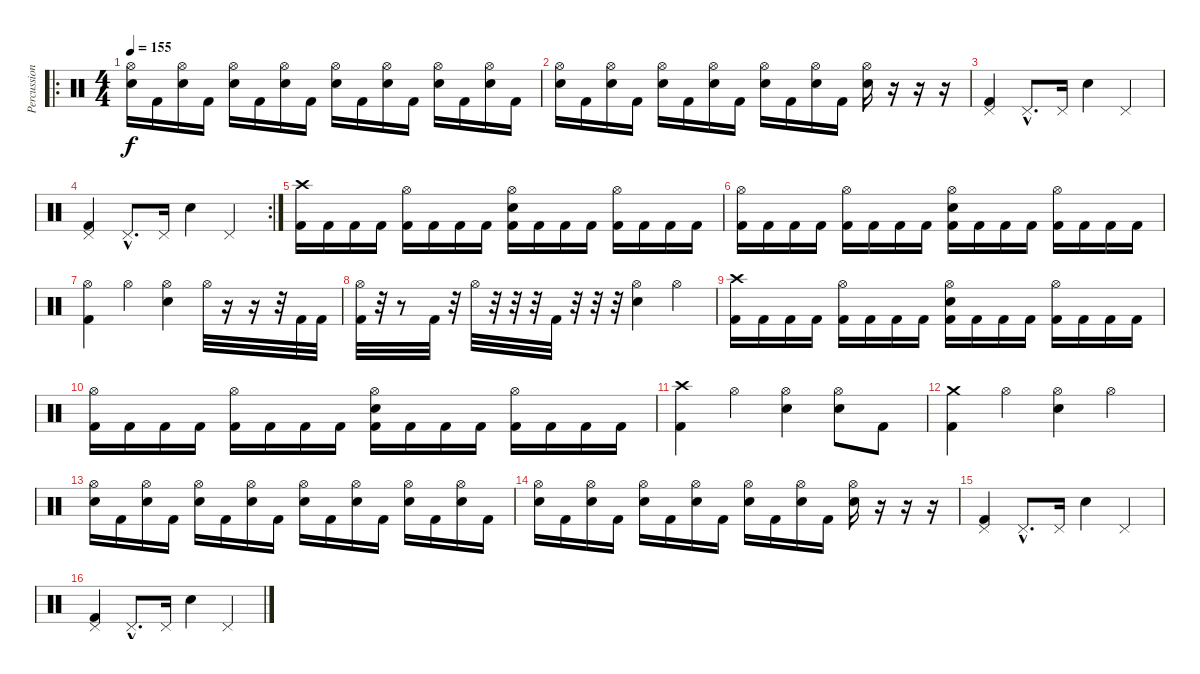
\track ("Percussions" "Percussion") {instrument percussion}
\staff {score}
\articulation defaults
\ro
\ts (4 4)
\tempo 155
\clef neutral
\ks c
("Hi-Hat (open)" "Electric Snare (hit)").16{dy f} "Kick (hit) 2".16 ("Hi-Hat (open)" "Electric Snare (hit)").16 "Kick (hit) 2".16 ("Hi-Hat (open)" "Electric Snare (hit)").16 "Kick (hit) 2".16 ("Hi-Hat (open)" "Electric Snare (hit)").16 "Kick (hit) 2".16 ("Hi-Hat (open)" "Electric Snare (hit)").16 "Kick (hit) 2".16 ("Hi-Hat (open)" "Electric Snare (hit)").16 "Kick (hit) 2".16 ("Hi-Hat (open)" "Electric Snare (hit)").16 "Kick (hit) 2".16 ("Hi-Hat (open)" "Electric Snare (hit)").16 "Kick (hit) 2".16 |
("Hi-Hat (open)" "Electric Snare (hit)").16 "Kick (hit) 2".16 ("Hi-Hat (open)" "Electric Snare (hit)").16 "Kick (hit) 2".16 ("Hi-Hat (open)" "Electric Snare (hit)").16 "Kick (hit) 2".16 ("Hi-Hat (open)" "Electric Snare (hit)").16 "Kick (hit) 2".16 ("Hi-Hat (open)" "Electric Snare (hit)").16 "Kick (hit) 2".16 ("Hi-Hat (open)" "Electric Snare (hit)").16 "Kick (hit) 2".16 ("Hi-Hat (open)" "Electric Snare (hit)").16 r.16 r.16 r.16 |
("Pedal Hi-Hat (hit)" "Kick (hit) 2").4 "Pedal Hi-Hat (hit)"{hac}.8{d} "Pedal Hi-Hat (hit)".16 "Electric Snare (hit)".4 "Pedal Hi-Hat (hit)".4 |
\rc 2
("Pedal Hi-Hat (hit)" "Kick (hit) 2").4 "Pedal Hi-Hat (hit)"{hac}.8{d} "Pedal Hi-Hat (hit)".16 "Electric Snare (hit)".4 "Pedal Hi-Hat (hit)".4 |
("Crash high (hit)" "Kick (hit) 2").16 "Kick (hit) 2".16 "Kick (hit) 2".16 "Kick (hit) 2".16 ("Hi-Hat (open)" "Kick (hit) 2").16 "Kick (hit) 2".16 "Kick (hit) 2".16 "Kick (hit) 2".16 ("Hi-Hat (open)" "Electric Snare (hit)" "Kick (hit) 2").16 "Kick (hit) 2".16 "Kick (hit) 2".16 "Kick (hit) 2".16 ("Hi-Hat (open)" "Kick (hit) 2").16 "Kick (hit) 2".16 "Kick (hit) 2".16 "Kick (hit) 2".16 |
("Hi-Hat (open)" "Kick (hit) 2").16 "Kick (hit) 2".16 "Kick (hit) 2".16 "Kick (hit) 2".16 ("Hi-Hat (open)" "Kick (hit) 2").16 "Kick (hit) 2".16 "Kick (hit) 2".16 "Kick (hit) 2".16 ("Hi-Hat (open)" "Electric Snare (hit)" "Kick (hit) 2").16 "Kick (hit) 2".16 "Kick (hit) 2".16 "Kick (hit) 2".16 ("Hi-Hat (open)" "Kick (hit) 2").16 "Kick (hit) 2".16 "Kick (hit) 2".16 "Kick (hit) 2".16 |
("Hi-Hat (open)" "Kick (hit) 2").4 "Hi-Hat (open)".4 ("Hi-Hat (open)" "Electric Snare (hit)").4 "Hi-Hat (open)".32 r.16 r.16 r.32 "Kick (hit) 2".32 "Kick (hit) 2".32 |
("Hi-Hat (open)" "Kick (hit) 2").32 r.32 r.8 "Kick (hit) 2".32 r.32 "Hi-Hat (open)".32 r.32 r.32 r.32 "Kick (hit) 2".32 r.32 r.32 r.32 ("Hi-Hat (open)" "Electric Snare (hit)").4 "Hi-Hat (open)".4 |
("Crash high (hit)" "Kick (hit) 2").16 "Kick (hit) 2".16 "Kick (hit) 2".16 "Kick (hit) 2".16 ("Hi-Hat (open)" "Kick (hit) 2").16 "Kick (hit) 2".16 "Kick (hit) 2".16 "Kick (hit) 2".16 ("Hi-Hat (open)" "Electric Snare (hit)" "Kick (hit) 2").16 "Kick (hit) 2".16 "Kick (hit) 2".16 "Kick (hit) 2".16 ("Hi-Hat (open)" "Kick (hit) 2").16 "Kick (hit) 2".16 "Kick (hit) 2".16 "Kick (hit) 2".16 |
("Hi-Hat (open)" "Kick (hit) 2").16 "Kick (hit) 2".16 "Kick (hit) 2".16 "Kick (hit) 2".16 ("Hi-Hat (open)" "Kick (hit) 2").16 "Kick (hit) 2".16 "Kick (hit) 2".16 "Kick (hit) 2".16 ("Hi-Hat (open)" "Electric Snare (hit)" "Kick (hit) 2").16 "Kick (hit) 2".16 "Kick (hit) 2".16 "Kick (hit) 2".16 ("Hi-Hat (open)" "Kick (hit) 2").16 "Kick (hit) 2".16 "Kick (hit) 2".16 "Kick (hit) 2".16 |
("Crash high (hit)" "Kick (hit) 2").4 "Hi-Hat (open)".4 ("Hi-Hat (open)" "Electric Snare (hit)").4 ("Hi-Hat (open)" "Electric Snare (hit)").8 "Kick (hit) 2".8 |
("Crash medium (hit)" "Kick (hit) 2").4 "Hi-Hat (open)".4 ("Hi-Hat (open)" "Electric Snare (hit)").4 "Hi-Hat (open)".4 |
("Hi-Hat (open)" "Electric Snare (hit)").16 "Kick (hit) 2".16 ("Hi-Hat (open)" "Electric Snare (hit)").16 "Kick (hit) 2".16 ("Hi-Hat (open)" "Electric Snare (hit)").16 "Kick (hit) 2".16 ("Hi-Hat (open)" "Electric Snare (hit)").16 "Kick (hit) 2".16 ("Hi-Hat (open)" "Electric Snare (hit)").16 "Kick (hit) 2".16 ("Hi-Hat (open)" "Electric Snare (hit)").16 "Kick (hit) 2".16 ("Hi-Hat (open)" "Electric Snare (hit)").16 "Kick (hit) 2".16 ("Hi-Hat (open)" "Electric Snare (hit)").16 "Kick (hit) 2".16 |
("Hi-Hat (open)" "Electric Snare (hit)").16 "Kick (hit) 2".16 ("Hi-Hat (open)" "Electric Snare (hit)").16 "Kick (hit) 2".16 ("Hi-Hat (open)" "Electric Snare (hit)").16 "Kick (hit) 2".16 ("Hi-Hat (open)" "Electric Snare (hit)").16 "Kick (hit) 2".16 ("Hi-Hat (open)" "Electric Snare (hit)").16 "Kick (hit) 2".16 ("Hi-Hat (open)" "Electric Snare (hit)").16 "Kick (hit) 2".16 ("Hi-Hat (open)" "Electric Snare (hit)").16 r.16 r.16 r.16 |
("Pedal Hi-Hat (hit)" "Kick (hit) 2").4 "Pedal Hi-Hat (hit)"{hac}.8{d} "Pedal Hi-Hat (hit)".16 "Electric Snare (hit)".4 "Pedal Hi-Hat (hit)".4 |
("Pedal Hi-Hat (hit)" "Kick (hit) 2").4 "Pedal Hi-Hat (hit)"{hac}.8{d} "Pedal Hi-Hat (hit)".16 "Electric Snare (hit)".4 "Pedal Hi-Hat (hit)".4
